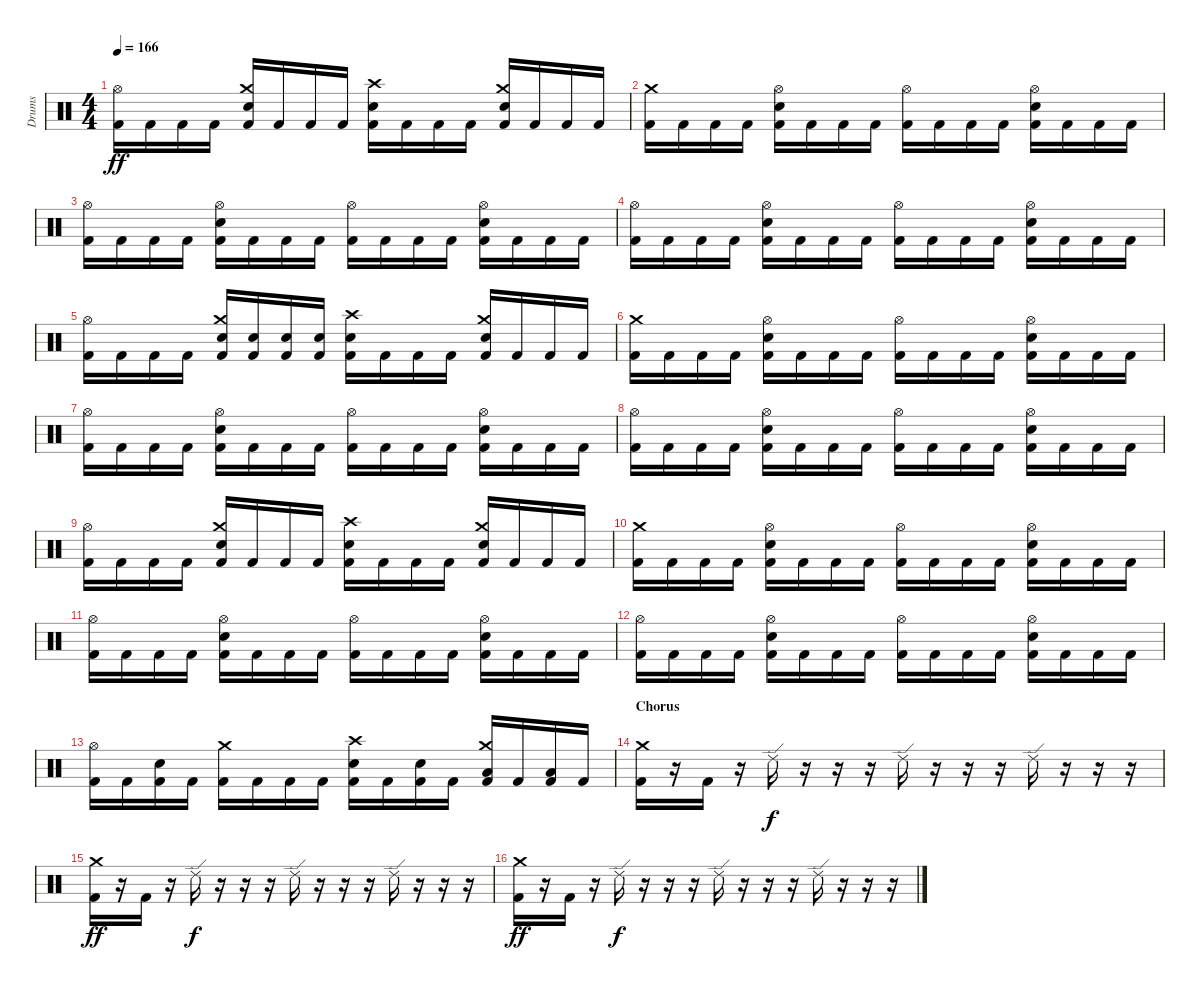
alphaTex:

\track ("Drums" "Drums") {instrument percussion}
\staff {score}
\articulation defaults
\ts (4 4)
\tempo 166
\clef neutral
\ks c
("Hi-Hat (open)" "Kick (hit) 2").16{dy ff} "Kick (hit) 2".16 "Kick (hit) 2".16 "Kick (hit) 2".16 ("Crash medium (hit)" "Electric Snare (hit)" "Kick (hit) 2").16 "Kick (hit) 2".16 "Kick (hit) 2".16 "Kick (hit) 2".16 ("Crash high (hit)" "Electric Snare (hit)" "Kick (hit) 2").16 "Kick (hit) 2".16 "Kick (hit) 2".16 "Kick (hit) 2".16 ("Crash medium (hit)" "Electric Snare (hit)" "Kick (hit) 2").16 "Kick (hit) 2".16 "Kick (hit) 2".16 "Kick (hit) 2".16 |
("Crash medium (hit)" "Kick (hit) 2").16 "Kick (hit) 2".16 "Kick (hit) 2".16 "Kick (hit) 2".16 ("Hi-Hat (open)" "Electric Snare (hit)" "Kick (hit) 2").16 "Kick (hit) 2".16 "Kick (hit) 2".16 "Kick (hit) 2".16 ("Hi-Hat (open)" "Kick (hit) 2").16 "Kick (hit) 2".16 "Kick (hit) 2".16 "Kick (hit) 2".16 ("Hi-Hat (open)" "Electric Snare (hit)" "Kick (hit) 2").16 "Kick (hit) 2".16 "Kick (hit) 2".16 "Kick (hit) 2".16 |
("Hi-Hat (open)" "Kick (hit) 2").16 "Kick (hit) 2".16 "Kick (hit) 2".16 "Kick (hit) 2".16 ("Hi-Hat (open)" "Electric Snare (hit)" "Kick (hit) 2").16 "Kick (hit) 2".16 "Kick (hit) 2".16 "Kick (hit) 2".16 ("Hi-Hat (open)" "Kick (hit) 2").16 "Kick (hit) 2".16 "Kick (hit) 2".16 "Kick (hit) 2".16 ("Hi-Hat (open)" "Electric Snare (hit)" "Kick (hit) 2").16 "Kick (hit) 2".16 "Kick (hit) 2".16 "Kick (hit) 2".16 |
("Hi-Hat (open)" "Kick (hit) 2").16 "Kick (hit) 2".16 "Kick (hit) 2".16 "Kick (hit) 2".16 ("Hi-Hat (open)" "Electric Snare (hit)" "Kick (hit) 2").16 "Kick (hit) 2".16 "Kick (hit) 2".16 "Kick (hit) 2".16 ("Hi-Hat (open)" "Kick (hit) 2").16 "Kick (hit) 2".16 "Kick (hit) 2".16 "Kick (hit) 2".16 ("Hi-Hat (open)" "Electric Snare (hit)" "Kick (hit) 2").16 "Kick (hit) 2".16 "Kick (hit) 2".16 "Kick (hit) 2".16 |
("Hi-Hat (open)" "Kick (hit) 2").16 "Kick (hit) 2".16 "Kick (hit) 2".16 "Kick (hit) 2".16 ("Crash medium (hit)" "Electric Snare (hit)" "Kick (hit) 2").16 ("Electric Snare (hit)" "Kick (hit) 2").16 ("Electric Snare (hit)" "Kick (hit) 2").16 ("Electric Snare (hit)" "Kick (hit) 2").16 ("Crash high (hit)" "Electric Snare (hit)" "Kick (hit) 2").16 "Kick (hit) 2".16 "Kick (hit) 2".16 "Kick (hit) 2".16 ("Crash medium (hit)" "Electric Snare (hit)" "Kick (hit) 2").16 "Kick (hit) 2".16 "Kick (hit) 2".16 "Kick (hit) 2".16 |
("Crash medium (hit)" "Kick (hit) 2").16 "Kick (hit) 2".16 "Kick (hit) 2".16 "Kick (hit) 2".16 ("Hi-Hat (open)" "Electric Snare (hit)" "Kick (hit) 2").16 "Kick (hit) 2".16 "Kick (hit) 2".16 "Kick (hit) 2".16 ("Hi-Hat (open)" "Kick (hit) 2").16 "Kick (hit) 2".16 "Kick (hit) 2".16 "Kick (hit) 2".16 ("Hi-Hat (open)" "Electric Snare (hit)" "Kick (hit) 2").16 "Kick (hit) 2".16 "Kick (hit) 2".16 "Kick (hit) 2".16 |
("Hi-Hat (open)" "Kick (hit) 2").16 "Kick (hit) 2".16 "Kick (hit) 2".16 "Kick (hit) 2".16 ("Hi-Hat (open)" "Electric Snare (hit)" "Kick (hit) 2").16 "Kick (hit) 2".16 "Kick (hit) 2".16 "Kick (hit) 2".16 ("Hi-Hat (open)" "Kick (hit) 2").16 "Kick (hit) 2".16 "Kick (hit) 2".16 "Kick (hit) 2".16 ("Hi-Hat (open)" "Electric Snare (hit)" "Kick (hit) 2").16 "Kick (hit) 2".16 "Kick (hit) 2".16 "Kick (hit) 2".16 |
("Hi-Hat (open)" "Kick (hit) 2").16 "Kick (hit) 2".16 "Kick (hit) 2".16 "Kick (hit) 2".16 ("Hi-Hat (open)" "Electric Snare (hit)" "Kick (hit) 2").16 "Kick (hit) 2".16 "Kick (hit) 2".16 "Kick (hit) 2".16 ("Hi-Hat (open)" "Kick (hit) 2").16 "Kick (hit) 2".16 "Kick (hit) 2".16 "Kick (hit) 2".16 ("Hi-Hat (open)" "Electric Snare (hit)" "Kick (hit) 2").16 "Kick (hit) 2".16 "Kick (hit) 2".16 "Kick (hit) 2".16 |
("Hi-Hat (open)" "Kick (hit) 2").16 "Kick (hit) 2".16 "Kick (hit) 2".16 "Kick (hit) 2".16 ("Crash medium (hit)" "Electric Snare (hit)" "Kick (hit) 2").16 "Kick (hit) 2".16 "Kick (hit) 2".16 "Kick (hit) 2".16 ("Crash high (hit)" "Electric Snare (hit)" "Kick (hit) 2").16 "Kick (hit) 2".16 "Kick (hit) 2".16 "Kick (hit) 2".16 ("Crash medium (hit)" "Electric Snare (hit)" "Kick (hit) 2").16 "Kick (hit) 2".16 "Kick (hit) 2".16 "Kick (hit) 2".16 |
("Crash medium (hit)" "Kick (hit) 2").16 "Kick (hit) 2".16 "Kick (hit) 2".16 "Kick (hit) 2".16 ("Hi-Hat (open)" "Electric Snare (hit)" "Kick (hit) 2").16 "Kick (hit) 2".16 "Kick (hit) 2".16 "Kick (hit) 2".16 ("Hi-Hat (open)" "Kick (hit) 2").16 "Kick (hit) 2".16 "Kick (hit) 2".16 "Kick (hit) 2".16 ("Hi-Hat (open)" "Electric Snare (hit)" "Kick (hit) 2").16 "Kick (hit) 2".16 "Kick (hit) 2".16 "Kick (hit) 2".16 |
("Hi-Hat (open)" "Kick (hit) 2").16 "Kick (hit) 2".16 "Kick (hit) 2".16 "Kick (hit) 2".16 ("Hi-Hat (open)" "Electric Snare (hit)" "Kick (hit) 2").16 "Kick (hit) 2".16 "Kick (hit) 2".16 "Kick (hit) 2".16 ("Hi-Hat (open)" "Kick (hit) 2").16 "Kick (hit) 2".16 "Kick (hit) 2".16 "Kick (hit) 2".16 ("Hi-Hat (open)" "Electric Snare (hit)" "Kick (hit) 2").16 "Kick (hit) 2".16 "Kick (hit) 2".16 "Kick (hit) 2".16 |
("Hi-Hat (open)" "Kick (hit) 2").16 "Kick (hit) 2".16 "Kick (hit) 2".16 "Kick (hit) 2".16 ("Hi-Hat (open)" "Electric Snare (hit)" "Kick (hit) 2").16 "Kick (hit) 2".16 "Kick (hit) 2".16 "Kick (hit) 2".16 ("Hi-Hat (open)" "Kick (hit) 2").16 "Kick (hit) 2".16 "Kick (hit) 2".16 "Kick (hit) 2".16 ("Hi-Hat (open)" "Electric Snare (hit)" "Kick (hit) 2").16 "Kick (hit) 2".16 "Kick (hit) 2".16 "Kick (hit) 2".16 |
("Hi-Hat (open)" "Kick (hit) 2").16 "Kick (hit) 2".16 ("Electric Snare (hit)" "Kick (hit) 2").16 "Kick (hit) 2".16 ("Crash medium (hit)" "Kick (hit) 2").16 "Kick (hit) 2".16 "Kick (hit) 2".16 "Kick (hit) 2".16 ("Crash high (hit)" "Electric Snare (hit)" "Kick (hit) 2").16 "Kick (hit) 2".16 ("Electric Snare (hit)" "Kick (hit) 2").16 "Kick (hit) 2".16 ("Crash medium (hit)" "Low Floor Tom (hit)" "Kick (hit) 2").16 "Kick (hit) 2".16 ("Low Floor Tom (hit)" "Kick (hit) 2").16 "Kick (hit) 2".16 |
\section ("" "Chorus")
("Crash medium (hit)" "Kick (hit) 2").16 r.16 "Kick (hit) 2".16 r.16 "Ride (edge) 2".16{dy f} r.16 r.16 r.16 "Ride (edge) 2".16 r.16 r.16 r.16 "Ride (edge) 2".16 r.16 r.16 r.16 |
("Crash medium (hit)" "Kick (hit) 2").16{dy ff} r.16 "Kick (hit) 2".16 r.16 "Ride (edge) 2".16{dy f} r.16 r.16 r.16 "Ride (edge) 2".16 r.16 r.16 r.16 "Ride (edge) 2".16 r.16 r.16 r.16 |
("Crash medium (hit)" "Kick (hit) 2").16{dy ff} r.16 "Kick (hit) 2".16 r.16 "Ride (edge) 2".16{dy f} r.16 r.16 r.16 "Ride (edge) 2".16 r.16 r.16 r.16 "Ride (edge) 2".16 r.16 r.16 r.16
